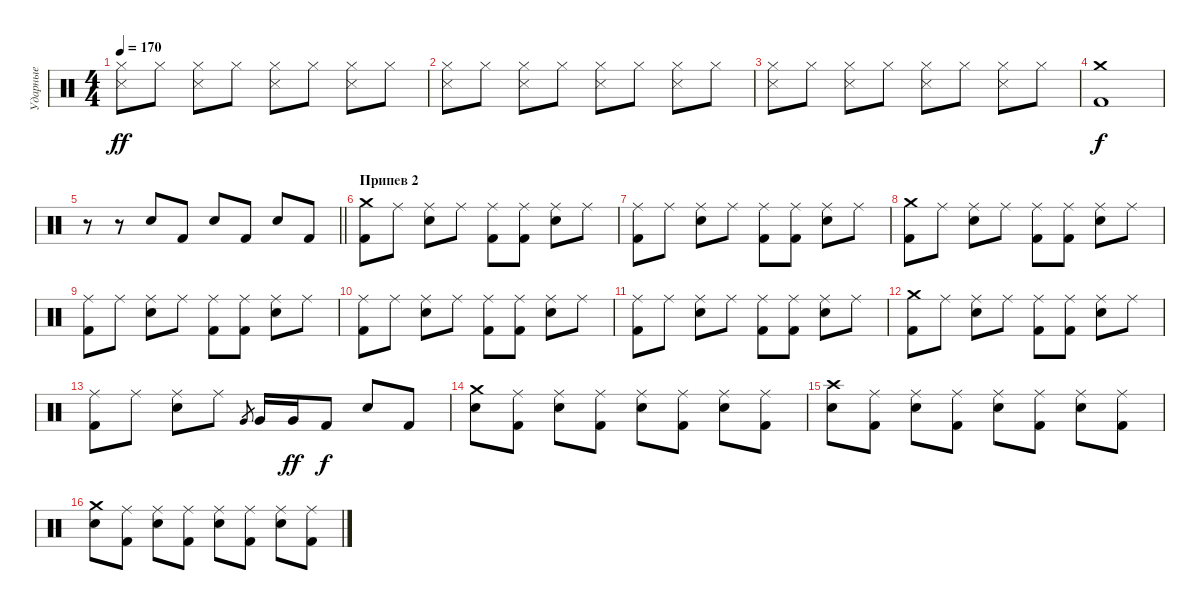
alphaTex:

\track ("Ударные" "Ударные") {instrument percussion}
\staff {score}
\articulation defaults
\ts (4 4)
\tempo 170
\clef neutral
\ks c
("Hi-Hat (closed)" "Snare (side stick) 3").8{dy ff} "Hi-Hat (closed)".8 ("Hi-Hat (closed)" "Snare (side stick) 3").8 "Hi-Hat (closed)".8 ("Hi-Hat (closed)" "Snare (side stick) 3").8 "Hi-Hat (closed)".8 ("Hi-Hat (closed)" "Snare (side stick) 3").8 "Hi-Hat (closed)".8 |
("Hi-Hat (closed)" "Snare (side stick) 3").8 "Hi-Hat (closed)".8 ("Hi-Hat (closed)" "Snare (side stick) 3").8 "Hi-Hat (closed)".8 ("Hi-Hat (closed)" "Snare (side stick) 3").8 "Hi-Hat (closed)".8 ("Hi-Hat (closed)" "Snare (side stick) 3").8 "Hi-Hat (closed)".8 |
("Hi-Hat (closed)" "Snare (side stick) 3").8 "Hi-Hat (closed)".8 ("Hi-Hat (closed)" "Snare (side stick) 3").8 "Hi-Hat (closed)".8 ("Hi-Hat (closed)" "Snare (side stick) 3").8 "Hi-Hat (closed)".8 ("Hi-Hat (closed)" "Snare (side stick) 3").8 "Hi-Hat (closed)".8 |
("Crash medium (hit)" "Kick (hit) 2").1{dy f} |
\barLineRight lightlight
r.8 r.8 "Snare (hit) 2".8 "Kick (hit) 2".8 "Snare (hit) 2".8 "Kick (hit) 2".8 "Snare (hit) 2".8 "Kick (hit) 2".8 |
\section ("" "Припев 2")
("Crash medium (hit)" "Kick (hit) 2").8 "Ride (middle)".8 ("Ride (middle)" "Snare (hit) 2").8 "Ride (middle)".8 ("Ride (middle)" "Kick (hit) 2").8 ("Ride (middle)" "Kick (hit) 2").8 ("Ride (middle)" "Snare (hit) 2").8 "Ride (middle)".8 |
("Ride (middle)" "Kick (hit) 2").8 "Ride (middle)".8 ("Ride (middle)" "Snare (hit) 2").8 "Ride (middle)".8 ("Ride (middle)" "Kick (hit) 2").8 ("Ride (middle)" "Kick (hit) 2").8 ("Ride (middle)" "Snare (hit) 2").8 "Ride (middle)".8 |
("Crash medium (hit)" "Kick (hit) 2").8 "Ride (middle)".8 ("Ride (middle)" "Snare (hit) 2").8 "Ride (middle)".8 ("Ride (middle)" "Kick (hit) 2").8 ("Ride (middle)" "Kick (hit) 2").8 ("Ride (middle)" "Snare (hit) 2").8 "Ride (middle)".8 |
("Ride (middle)" "Kick (hit) 2").8 "Ride (middle)".8 ("Ride (middle)" "Snare (hit) 2").8 "Ride (middle)".8 ("Ride (middle)" "Kick (hit) 2").8 ("Ride (middle)" "Kick (hit) 2").8 ("Ride (middle)" "Snare (hit) 2").8 "Ride (middle)".8 |
("Ride (middle)" "Kick (hit) 2").8 "Ride (middle)".8 ("Ride (middle)" "Snare (hit) 2").8 "Ride (middle)".8 ("Ride (middle)" "Kick (hit) 2").8 ("Ride (middle)" "Kick (hit) 2").8 ("Ride (middle)" "Snare (hit) 2").8 "Ride (middle)".8 |
("Ride (middle)" "Kick (hit) 2").8 "Ride (middle)".8 ("Ride (middle)" "Snare (hit) 2").8 "Ride (middle)".8 ("Ride (middle)" "Kick (hit) 2").8 ("Ride (middle)" "Kick (hit) 2").8 ("Ride (middle)" "Snare (hit) 2").8 "Ride (middle)".8 |
("Crash medium (hit)" "Kick (hit) 2").8 "Ride (middle)".8 ("Ride (middle)" "Snare (hit) 2").8 "Ride (middle)".8 ("Ride (middle)" "Kick (hit) 2").8 ("Ride (middle)" "Kick (hit) 2").8 ("Ride (middle)" "Snare (hit) 2").8 "Ride (middle)".8 |
("Ride (middle)" "Kick (hit) 2").8 "Ride (middle)".8 ("Ride (middle)" "Snare (hit) 2").8 "Ride (middle)".8 "Very Low Tom (hit)".8{gr} "Very Low Tom (hit)".16 "Very Low Tom (hit)".16{dy ff} "Kick (hit) 2".8{dy f} "Snare (hit) 2".8 "Kick (hit) 2".8 |
("Crash medium (hit)" "Snare (hit) 2").8 ("Ride (middle)" "Kick (hit) 2").8 ("Ride (middle)" "Snare (hit) 2").8 ("Ride (middle)" "Kick (hit) 2").8 ("Ride (middle)" "Snare (hit) 2").8 ("Ride (middle)" "Kick (hit) 2").8 ("Ride (middle)" "Snare (hit) 2").8 ("Ride (middle)" "Kick (hit) 2").8 |
("Crash high (hit)" "Snare (hit) 2").8 ("Ride (middle)" "Kick (hit) 2").8 ("Ride (middle)" "Snare (hit) 2").8 ("Ride (middle)" "Kick (hit) 2").8 ("Ride (middle)" "Snare (hit) 2").8 ("Ride (middle)" "Kick (hit) 2").8 ("Ride (middle)" "Snare (hit) 2").8 ("Ride (middle)" "Kick (hit) 2").8 |
("Crash medium (hit)" "Snare (hit) 2").8 ("Ride (middle)" "Kick (hit) 2").8 ("Ride (middle)" "Snare (hit) 2").8 ("Ride (middle)" "Kick (hit) 2").8 ("Ride (middle)" "Snare (hit) 2").8 ("Ride (middle)" "Kick (hit) 2").8 ("Ride (middle)" "Snare (hit) 2").8 ("Ride (middle)" "Kick (hit) 2").8
